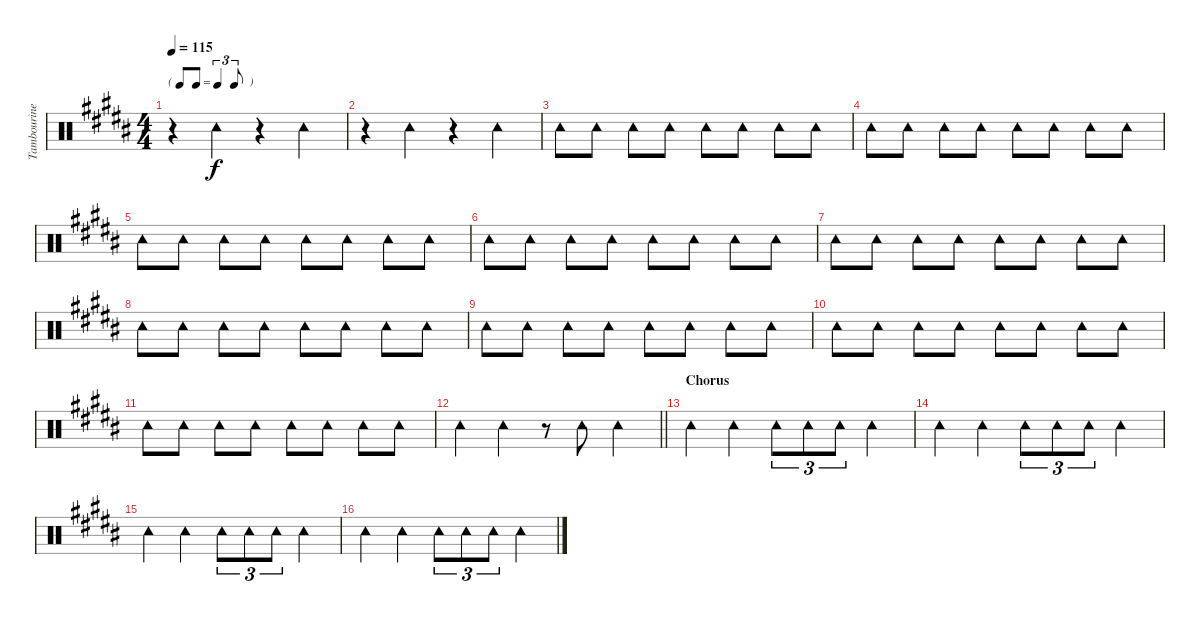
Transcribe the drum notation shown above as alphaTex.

\track ("Tambourine" "Tambourine") {instrument percussion}
\staff {score}
\articulation defaults
\ts (4 4)
\tf triplet8th
\tempo 115
\clef neutral
\ks b
r.4{dy f} "Tambourine (hit)".4 r.4 "Tambourine (hit)".4 |
r.4 "Tambourine (hit)".4 r.4 "Tambourine (hit)".4 |
"Tambourine (hit)".8 "Tambourine (hit)".8 "Tambourine (hit)".8 "Tambourine (hit)".8 "Tambourine (hit)".8 "Tambourine (hit)".8 "Tambourine (hit)".8 "Tambourine (hit)".8 |
"Tambourine (hit)".8 "Tambourine (hit)".8 "Tambourine (hit)".8 "Tambourine (hit)".8 "Tambourine (hit)".8 "Tambourine (hit)".8 "Tambourine (hit)".8 "Tambourine (hit)".8 |
"Tambourine (hit)".8 "Tambourine (hit)".8 "Tambourine (hit)".8 "Tambourine (hit)".8 "Tambourine (hit)".8 "Tambourine (hit)".8 "Tambourine (hit)".8 "Tambourine (hit)".8 |
"Tambourine (hit)".8 "Tambourine (hit)".8 "Tambourine (hit)".8 "Tambourine (hit)".8 "Tambourine (hit)".8 "Tambourine (hit)".8 "Tambourine (hit)".8 "Tambourine (hit)".8 |
"Tambourine (hit)".8 "Tambourine (hit)".8 "Tambourine (hit)".8 "Tambourine (hit)".8 "Tambourine (hit)".8 "Tambourine (hit)".8 "Tambourine (hit)".8 "Tambourine (hit)".8 |
"Tambourine (hit)".8 "Tambourine (hit)".8 "Tambourine (hit)".8 "Tambourine (hit)".8 "Tambourine (hit)".8 "Tambourine (hit)".8 "Tambourine (hit)".8 "Tambourine (hit)".8 |
"Tambourine (hit)".8 "Tambourine (hit)".8 "Tambourine (hit)".8 "Tambourine (hit)".8 "Tambourine (hit)".8 "Tambourine (hit)".8 "Tambourine (hit)".8 "Tambourine (hit)".8 |
"Tambourine (hit)".8 "Tambourine (hit)".8 "Tambourine (hit)".8 "Tambourine (hit)".8 "Tambourine (hit)".8 "Tambourine (hit)".8 "Tambourine (hit)".8 "Tambourine (hit)".8 |
"Tambourine (hit)".8 "Tambourine (hit)".8 "Tambourine (hit)".8 "Tambourine (hit)".8 "Tambourine (hit)".8 "Tambourine (hit)".8 "Tambourine (hit)".8 "Tambourine (hit)".8 |
\barLineRight lightlight "Tambourine (hit)".4 "Tambourine (hit)".4
r.8 "Tambourine (hit)".8 "Tambourine (hit)".4 |
\section ("" "Chorus")
"Tambourine (hit)".4 "Tambourine (hit)".4 "Tambourine (hit)".8{tu (3 2)} "Tambourine (hit)".8{tu (3 2)} "Tambourine (hit)".8{tu (3 2)} "Tambourine (hit)".4 |
"Tambourine (hit)".4 "Tambourine (hit)".4 "Tambourine (hit)".8{tu (3 2)} "Tambourine (hit)".8{tu (3 2)} "Tambourine (hit)".8{tu (3 2)} "Tambourine (hit)".4 |
"Tambourine (hit)".4 "Tambourine (hit)".4 "Tambourine (hit)".8{tu (3 2)} "Tambourine (hit)".8{tu (3 2)} "Tambourine (hit)".8{tu (3 2)} "Tambourine (hit)".4 |
"Tambourine (hit)".4 "Tambourine (hit)".4 "Tambourine (hit)".8{tu (3 2)} "Tambourine (hit)".8{tu (3 2)} "Tambourine (hit)".8{tu (3 2)} "Tambourine (hit)".4
